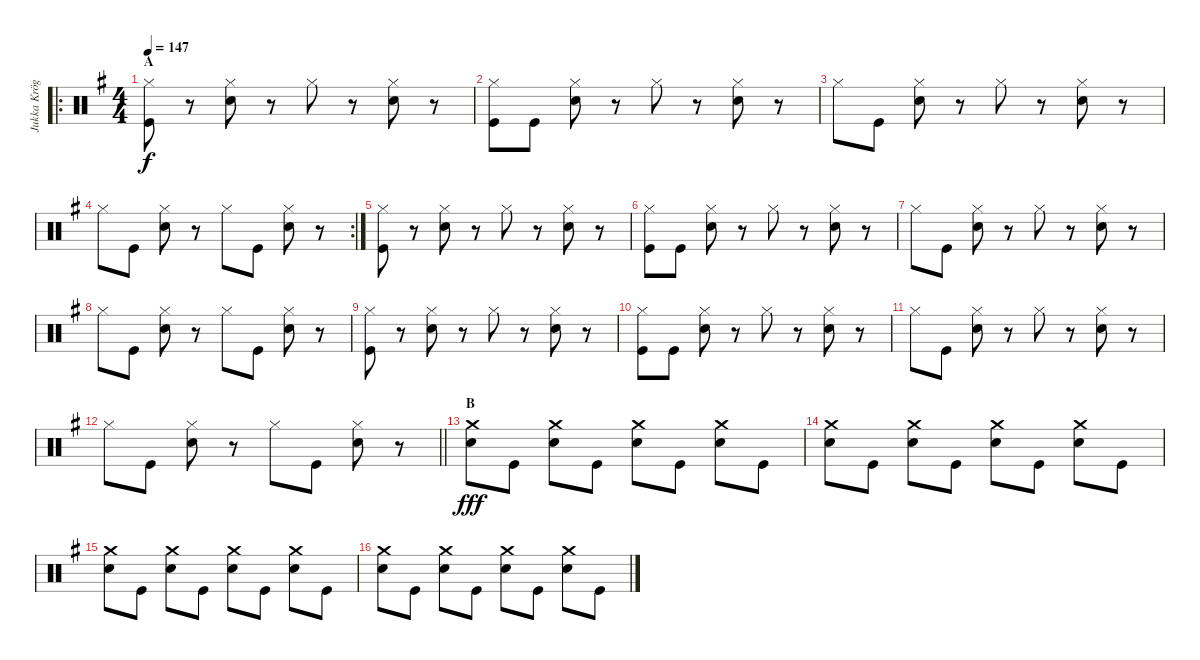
\track ("Jukka Kröger" "Jukka Krög") {instrument percussion}
\staff {score}
\articulation defaults
\ro
\ts (4 4)
\section ("" "A")
\tempo 147
\clef neutral
\ks eminor
("Hi-Hat (closed)" "Kick (hit)").8{dy f} r.8 ("Hi-Hat (closed)" "Snare (hit) 2").8 r.8 "Hi-Hat (closed)".8 r.8 ("Hi-Hat (closed)" "Snare (hit) 2").8 r.8 |
("Hi-Hat (closed)" "Kick (hit)").8 "Kick (hit)".8 ("Hi-Hat (closed)" "Snare (hit) 2").8 r.8 "Hi-Hat (closed)".8 r.8 ("Hi-Hat (closed)" "Snare (hit) 2").8 r.8 |
"Hi-Hat (closed)".8 "Kick (hit)".8 ("Hi-Hat (closed)" "Snare (hit) 2").8 r.8 "Hi-Hat (closed)".8 r.8 ("Hi-Hat (closed)" "Snare (hit) 2").8 r.8 |
\rc 2 "Hi-Hat (closed)".8 "Kick (hit)".8
("Hi-Hat (closed)" "Snare (hit) 2").8 r.8 "Hi-Hat (closed)".8 "Kick (hit)".8 ("Hi-Hat (closed)" "Snare (hit) 2").8 r.8 |
("Hi-Hat (closed)" "Kick (hit)").8 r.8 ("Hi-Hat (closed)" "Snare (hit) 2").8 r.8 "Hi-Hat (closed)".8 r.8 ("Hi-Hat (closed)" "Snare (hit) 2").8 r.8 |
("Hi-Hat (closed)" "Kick (hit)").8 "Kick (hit)".8 ("Hi-Hat (closed)" "Snare (hit) 2").8 r.8 "Hi-Hat (closed)".8 r.8 ("Hi-Hat (closed)" "Snare (hit) 2").8 r.8 |
"Hi-Hat (closed)".8 "Kick (hit)".8 ("Hi-Hat (closed)" "Snare (hit) 2").8 r.8 "Hi-Hat (closed)".8 r.8 ("Hi-Hat (closed)" "Snare (hit) 2").8 r.8 |
"Hi-Hat (closed)".8 "Kick (hit)".8 ("Hi-Hat (closed)" "Snare (hit) 2").8 r.8 "Hi-Hat (closed)".8 "Kick (hit)".8 ("Hi-Hat (closed)" "Snare (hit) 2").8 r.8 |
("Hi-Hat (closed)" "Kick (hit)").8 r.8 ("Hi-Hat (closed)" "Snare (hit) 2").8 r.8 "Hi-Hat (closed)".8 r.8 ("Hi-Hat (closed)" "Snare (hit) 2").8 r.8 |
("Hi-Hat (closed)" "Kick (hit)").8 "Kick (hit)".8 ("Hi-Hat (closed)" "Snare (hit) 2").8 r.8 "Hi-Hat (closed)".8 r.8 ("Hi-Hat (closed)" "Snare (hit) 2").8 r.8 |
"Hi-Hat (closed)".8 "Kick (hit)".8 ("Hi-Hat (closed)" "Snare (hit) 2").8 r.8 "Hi-Hat (closed)".8 r.8 ("Hi-Hat (closed)" "Snare (hit) 2").8 r.8 |
\barLineRight lightlight "Hi-Hat (closed)".8 "Kick (hit)".8
("Hi-Hat (closed)" "Snare (hit) 2").8 r.8 "Hi-Hat (closed)".8 "Kick (hit)".8 ("Hi-Hat (closed)" "Snare (hit) 2").8 r.8 |
\section ("" "B")
("Crash medium (hit)" "Snare (hit) 2").8{dy fff} "Kick (hit)".8 ("Crash medium (hit)" "Snare (hit) 2").8 "Kick (hit)".8 ("Crash medium (hit)" "Snare (hit) 2").8 "Kick (hit)".8 ("Crash medium (hit)" "Snare (hit) 2").8 "Kick (hit)".8 |
("Crash medium (hit)" "Snare (hit) 2").8 "Kick (hit)".8 ("Crash medium (hit)" "Snare (hit) 2").8 "Kick (hit)".8 ("Crash medium (hit)" "Snare (hit) 2").8 "Kick (hit)".8 ("Crash medium (hit)" "Snare (hit) 2").8 "Kick (hit)".8 |
("Crash medium (hit)" "Snare (hit) 2").8 "Kick (hit)".8 ("Crash medium (hit)" "Snare (hit) 2").8 "Kick (hit)".8 ("Crash medium (hit)" "Snare (hit) 2").8 "Kick (hit)".8 ("Crash medium (hit)" "Snare (hit) 2").8 "Kick (hit)".8 |
("Crash medium (hit)" "Snare (hit) 2").8 "Kick (hit)".8 ("Crash medium (hit)" "Snare (hit) 2").8 "Kick (hit)".8 ("Crash medium (hit)" "Snare (hit) 2").8 "Kick (hit)".8 ("Crash medium (hit)" "Snare (hit) 2").8 "Kick (hit)".8
